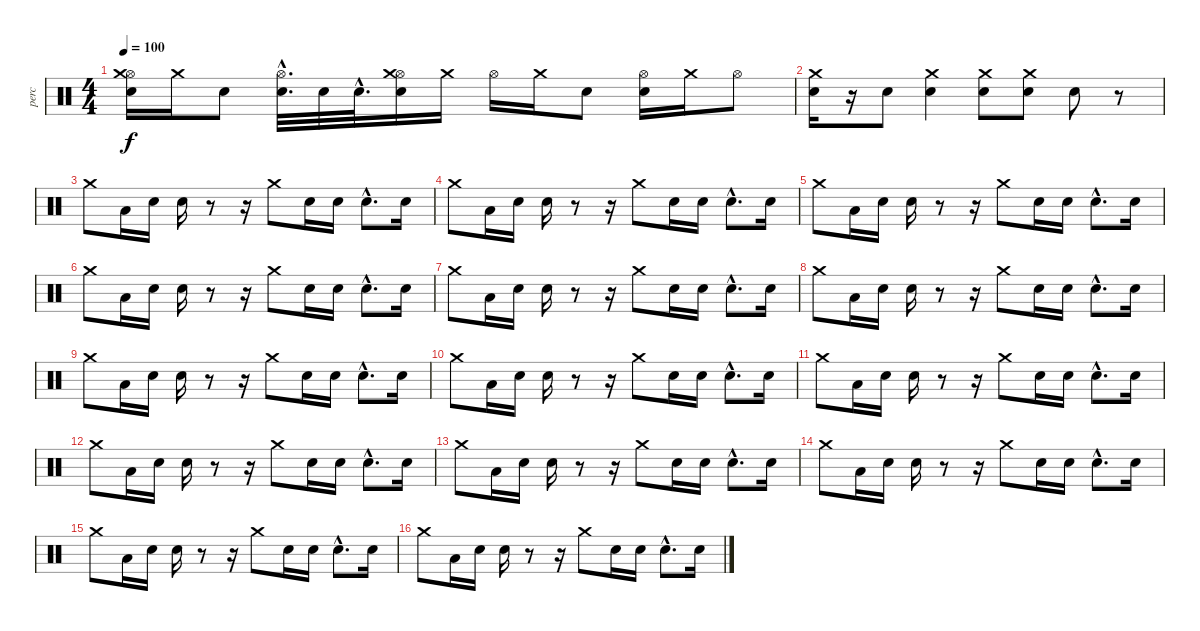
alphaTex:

\track ("perc" "perc") {instrument percussion}
\staff {score}
\articulation defaults
\ts (4 4)
\tempo 100
\clef neutral
\ks c
("Snare (hit) 2" "Hi-Hat (open)" "Crash medium (hit)").16{dy f} "Crash medium (hit)".16 "Snare (hit) 2".8 ("Snare (hit) 2"{hac} "Hi-Hat (open)"{hac}).32{d} "Snare (hit) 2".32 "Snare (hit) 2"{hac}.32{d} ("Snare (hit) 2" "Hi-Hat (open)" "Crash medium (hit)").16 "Crash medium (hit)".16 "Hi-Hat (open)".16 "Crash medium (hit)".16 "Snare (hit) 2".8 ("Snare (hit) 2" "Hi-Hat (open)").16 "Crash medium (hit)".16 "Hi-Hat (open)".8 |
("Snare (hit) 2" "Crash medium (hit)").16 r.16 "Snare (hit) 2".8 ("Snare (hit) 2" "Crash medium (hit)").4 ("Snare (hit) 2" "Crash medium (hit)").8 ("Snare (hit) 2" "Crash medium (hit)").8 "Snare (hit) 2".8 r.8 |
"Crash medium (hit)".8 "Low Floor Tom (hit)".16 "Electric Snare (hit)".16 "Snare (hit) 2".16 r.8 r.16 "Crash medium (hit)".8 "Electric Snare (hit)".16 "Electric Snare (hit)".16 "Snare (hit) 2"{hac}.8{d} "Electric Snare (hit)".16 |
"Crash medium (hit)".8 "Low Floor Tom (hit)".16 "Electric Snare (hit)".16 "Snare (hit) 2".16 r.8 r.16 "Crash medium (hit)".8 "Electric Snare (hit)".16 "Electric Snare (hit)".16 "Snare (hit) 2"{hac}.8{d} "Electric Snare (hit)".16 |
"Crash medium (hit)".8 "Low Floor Tom (hit)".16 "Electric Snare (hit)".16 "Snare (hit) 2".16 r.8 r.16 "Crash medium (hit)".8 "Electric Snare (hit)".16 "Electric Snare (hit)".16 "Snare (hit) 2"{hac}.8{d} "Electric Snare (hit)".16 |
"Crash medium (hit)".8 "Low Floor Tom (hit)".16 "Electric Snare (hit)".16 "Snare (hit) 2".16 r.8 r.16 "Crash medium (hit)".8 "Electric Snare (hit)".16 "Electric Snare (hit)".16 "Snare (hit) 2"{hac}.8{d} "Electric Snare (hit)".16 |
"Crash medium (hit)".8 "Low Floor Tom (hit)".16 "Electric Snare (hit)".16 "Snare (hit) 2".16 r.8 r.16 "Crash medium (hit)".8 "Electric Snare (hit)".16 "Electric Snare (hit)".16 "Snare (hit) 2"{hac}.8{d} "Electric Snare (hit)".16 |
"Crash medium (hit)".8 "Low Floor Tom (hit)".16 "Electric Snare (hit)".16 "Snare (hit) 2".16 r.8 r.16 "Crash medium (hit)".8 "Electric Snare (hit)".16 "Electric Snare (hit)".16 "Snare (hit) 2"{hac}.8{d} "Electric Snare (hit)".16 |
"Crash medium (hit)".8 "Low Floor Tom (hit)".16 "Electric Snare (hit)".16 "Snare (hit) 2".16 r.8 r.16 "Crash medium (hit)".8 "Electric Snare (hit)".16 "Electric Snare (hit)".16 "Snare (hit) 2"{hac}.8{d} "Electric Snare (hit)".16 |
"Crash medium (hit)".8 "Low Floor Tom (hit)".16 "Electric Snare (hit)".16 "Snare (hit) 2".16 r.8 r.16 "Crash medium (hit)".8 "Electric Snare (hit)".16 "Electric Snare (hit)".16 "Snare (hit) 2"{hac}.8{d} "Electric Snare (hit)".16 |
"Crash medium (hit)".8 "Low Floor Tom (hit)".16 "Electric Snare (hit)".16 "Snare (hit) 2".16 r.8 r.16 "Crash medium (hit)".8 "Electric Snare (hit)".16 "Electric Snare (hit)".16 "Snare (hit) 2"{hac}.8{d} "Electric Snare (hit)".16 |
"Crash medium (hit)".8 "Low Floor Tom (hit)".16 "Electric Snare (hit)".16 "Snare (hit) 2".16 r.8 r.16 "Crash medium (hit)".8 "Electric Snare (hit)".16 "Electric Snare (hit)".16 "Snare (hit) 2"{hac}.8{d} "Electric Snare (hit)".16 |
"Crash medium (hit)".8 "Low Floor Tom (hit)".16 "Electric Snare (hit)".16 "Snare (hit) 2".16 r.8 r.16 "Crash medium (hit)".8 "Electric Snare (hit)".16 "Electric Snare (hit)".16 "Snare (hit) 2"{hac}.8{d} "Electric Snare (hit)".16 |
"Crash medium (hit)".8 "Low Floor Tom (hit)".16 "Electric Snare (hit)".16 "Snare (hit) 2".16 r.8 r.16 "Crash medium (hit)".8 "Electric Snare (hit)".16 "Electric Snare (hit)".16 "Snare (hit) 2"{hac}.8{d} "Electric Snare (hit)".16 |
"Crash medium (hit)".8 "Low Floor Tom (hit)".16 "Electric Snare (hit)".16 "Snare (hit) 2".16 r.8 r.16 "Crash medium (hit)".8 "Electric Snare (hit)".16 "Electric Snare (hit)".16 "Snare (hit) 2"{hac}.8{d} "Electric Snare (hit)".16 |
"Crash medium (hit)".8 "Low Floor Tom (hit)".16 "Electric Snare (hit)".16 "Snare (hit) 2".16 r.8 r.16 "Crash medium (hit)".8 "Electric Snare (hit)".16 "Electric Snare (hit)".16 "Snare (hit) 2"{hac}.8{d} "Electric Snare (hit)".16
